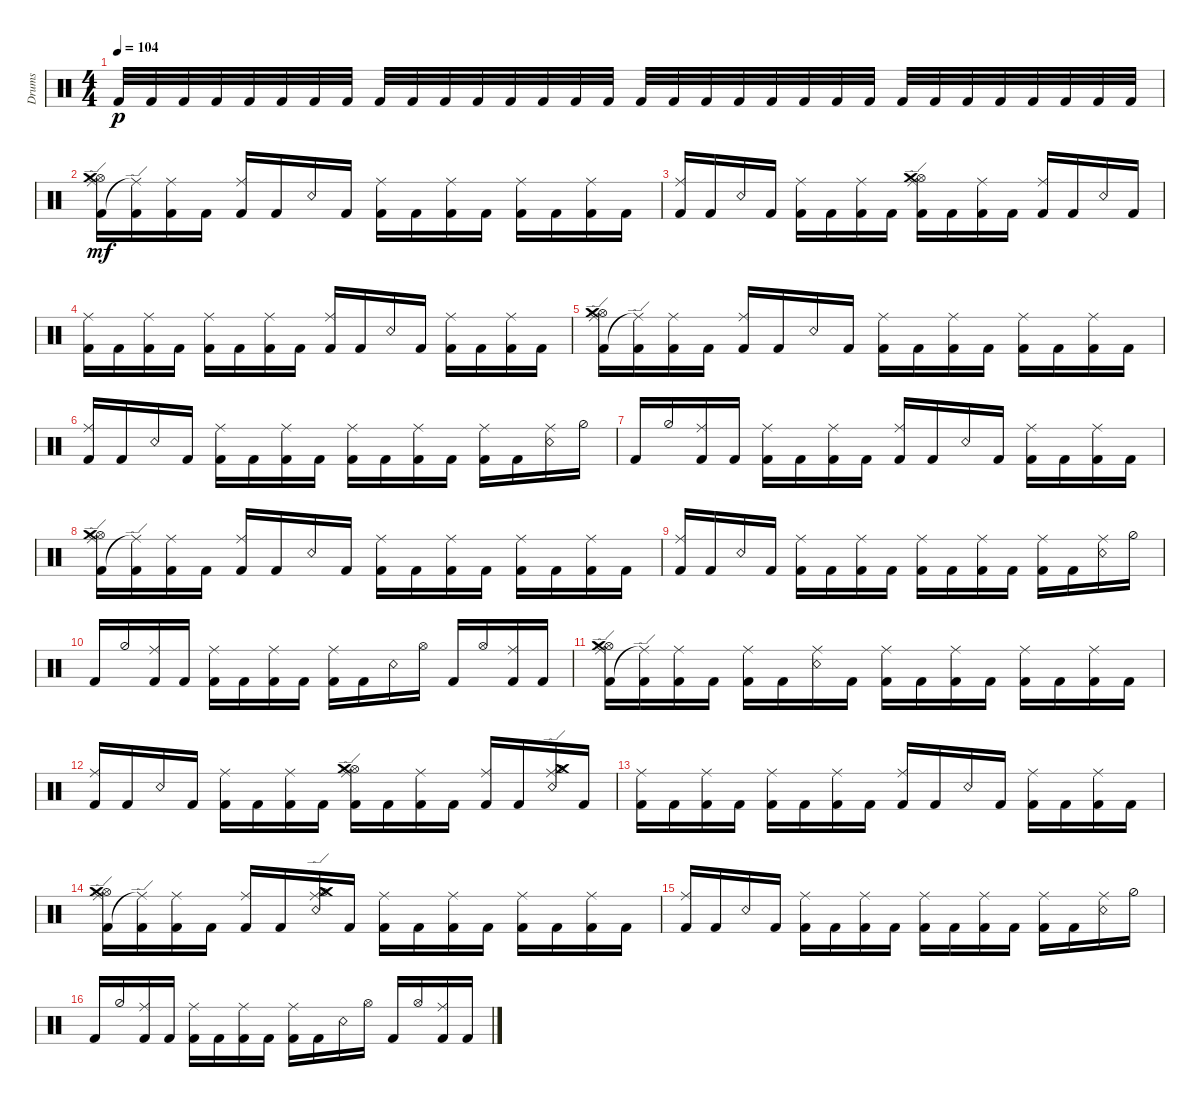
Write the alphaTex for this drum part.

\defaultSystemsLayout 4
\bracketExtendMode groupsimilarinstruments
\otherSystemsTrackNameOrientation horizontal
\track ("Martin Lopez" "Drums") {instrument percussion}
\staff {score}
\articulation defaults
\ts (4 4)
\tempo 104
\clef neutral
\ks c "Kick (hit) 2".32{dy p beam Up} "Kick (hit) 2".32{beam Up} "Kick (hit) 2".32{beam Up} "Kick (hit) 2".32{beam Up} "Kick (hit) 2".32{beam Up} "Kick (hit) 2".32{beam Up} "Kick (hit) 2".32{beam Up} "Kick (hit) 2".32{beam Up} "Kick (hit) 2".32{beam Up} "Kick (hit) 2".32{beam Up} "Kick (hit) 2".32{beam Up} "Kick (hit) 2".32{beam Up} "Kick (hit) 2".32{beam Up} "Kick (hit) 2".32{beam Up} "Kick (hit) 2".32{beam Up} "Kick (hit) 2".32{beam Up} "Kick (hit) 2".32{beam Up} "Kick (hit) 2".32{beam Up} "Kick (hit) 2".32{beam Up} "Kick (hit) 2".32{beam Up} "Kick (hit) 2".32{beam Up} "Kick (hit) 2".32{beam Up} "Kick (hit) 2".32{beam Up} "Kick (hit) 2".32{beam Up} "Kick (hit) 2".32{beam Up} "Kick (hit) 2".32{beam Up} "Kick (hit) 2".32{beam Up} "Kick (hit) 2".32{beam Up} "Kick (hit) 2".32{beam Up} "Kick (hit) 2".32{beam Up} "Kick (hit) 2".32{beam Up} "Kick (hit) 2".32{beam Up}
|
("Ride (edge)" "Kick (hit) 2" "Hi-Hat (open)" "Crash medium (hit)").16{dy mf beam Down} ("Kick (hit) 2" "Ride (edge)"{t}).16{beam Down} ("Ride (middle)" "Kick (hit) 2").16{beam Down} "Kick (hit) 2".16{beam Down} ("Kick (hit) 2" "Ride (middle)").16{beam Up} "Kick (hit) 2".16{beam Up} "Snare (rim shot)".16{beam Up} "Kick (hit) 2".16{beam Up} ("Kick (hit) 2" "Ride (middle)").16{beam Down} "Kick (hit) 2".16{beam Down} ("Kick (hit) 2" "Ride (middle)").16{beam Down} "Kick (hit) 2".16{beam Down} ("Kick (hit) 2" "Ride (middle)").16{beam Down} "Kick (hit) 2".16{beam Down} ("Kick (hit) 2" "Ride (middle)").16{beam Down} "Kick (hit) 2".16{beam Down} |
("Kick (hit) 2" "Ride (middle)").16{beam Up} "Kick (hit) 2".16{beam Up} "Snare (rim shot)".16{beam Up} "Kick (hit) 2".16{beam Up} ("Kick (hit) 2" "Ride (middle)").16{beam Down} "Kick (hit) 2".16{beam Down} ("Kick (hit) 2" "Ride (middle)").16{beam Down} "Kick (hit) 2".16{beam Down} ("Kick (hit) 2" "Ride (edge)" "Hi-Hat (open)" "Crash medium (hit)").16{beam Down} "Kick (hit) 2".16{beam Down} ("Kick (hit) 2" "Ride (middle)").16{beam Down} "Kick (hit) 2".16{beam Down} ("Kick (hit) 2" "Ride (middle)").16{beam Up} "Kick (hit) 2".16{beam Up} "Snare (rim shot)".16{beam Up} "Kick (hit) 2".16{beam Up} |
("Kick (hit) 2" "Ride (middle)").16{beam Down} "Kick (hit) 2".16{beam Down} ("Kick (hit) 2" "Ride (middle)").16{beam Down} "Kick (hit) 2".16{beam Down} ("Kick (hit) 2" "Ride (middle)").16{beam Down} "Kick (hit) 2".16{beam Down} ("Kick (hit) 2" "Ride (middle)").16{beam Down} "Kick (hit) 2".16{beam Down} ("Kick (hit) 2" "Ride (middle)").16{beam Up} "Kick (hit) 2".16{beam Up} "Snare (rim shot)".16{beam Up} "Kick (hit) 2".16{beam Up} ("Kick (hit) 2" "Ride (middle)").16{beam Down} "Kick (hit) 2".16{beam Down} ("Kick (hit) 2" "Ride (middle)").16{beam Down} "Kick (hit) 2".16{beam Down} |
("Ride (edge)" "Kick (hit) 2" "Hi-Hat (open)" "Crash medium (hit)").16{beam Down} ("Kick (hit) 2" "Ride (edge)"{t}).16{beam Down} ("Ride (middle)" "Kick (hit) 2").16{beam Down} "Kick (hit) 2".16{beam Down} ("Kick (hit) 2" "Ride (middle)").16{beam Up} "Kick (hit) 2".16{beam Up} "Snare (rim shot)".16{beam Up} "Kick (hit) 2".16{beam Up} ("Kick (hit) 2" "Ride (middle)").16{beam Down} "Kick (hit) 2".16{beam Down} ("Kick (hit) 2" "Ride (middle)").16{beam Down} "Kick (hit) 2".16{beam Down} ("Kick (hit) 2" "Ride (middle)").16{beam Down} "Kick (hit) 2".16{beam Down} ("Kick (hit) 2" "Ride (middle)").16{beam Down} "Kick (hit) 2".16{beam Down} |
("Kick (hit) 2" "Ride (middle)").16{beam Up} "Kick (hit) 2".16{beam Up} "Snare (rim shot)".16{beam Up} "Kick (hit) 2".16{beam Up} ("Kick (hit) 2" "Ride (middle)").16{beam Down} "Kick (hit) 2".16{beam Down} ("Kick (hit) 2" "Ride (middle)").16{beam Down} "Kick (hit) 2".16{beam Down} ("Kick (hit) 2" "Ride (middle)").16{beam Down} "Kick (hit) 2".16{beam Down} ("Kick (hit) 2" "Ride (middle)").16{beam Down} "Kick (hit) 2".16{beam Down} ("Kick (hit) 2" "Ride (middle)").16{beam Down} "Kick (hit) 2".16{beam Down} ("Snare (rim shot)" "Ride (middle)").16{beam Down} "Hi-Hat (half)".16{beam Down} |
"Kick (hit) 2".16{beam Up} "Hi-Hat (half)".16{beam Up} ("Kick (hit) 2" "Ride (middle)").16{beam Up} "Kick (hit) 2".16{beam Up} ("Kick (hit) 2" "Ride (middle)").16{beam Down} "Kick (hit) 2".16{beam Down} ("Kick (hit) 2" "Ride (middle)").16{beam Down} "Kick (hit) 2".16{beam Down} ("Kick (hit) 2" "Ride (middle)").16{beam Up} "Kick (hit) 2".16{beam Up} "Snare (rim shot)".16{beam Up} "Kick (hit) 2".16{beam Up} ("Kick (hit) 2" "Ride (middle)").16{beam Down} "Kick (hit) 2".16{beam Down} ("Kick (hit) 2" "Ride (middle)").16{beam Down} "Kick (hit) 2".16{beam Down} |
("Ride (edge)" "Kick (hit) 2" "Hi-Hat (open)" "Crash medium (hit)").16{beam Down} ("Kick (hit) 2" "Ride (edge)"{t}).16{beam Down} ("Ride (middle)" "Kick (hit) 2").16{beam Down} "Kick (hit) 2".16{beam Down} ("Kick (hit) 2" "Ride (middle)").16{beam Up} "Kick (hit) 2".16{beam Up} "Snare (rim shot)".16{beam Up} "Kick (hit) 2".16{beam Up} ("Kick (hit) 2" "Ride (middle)").16{beam Down} "Kick (hit) 2".16{beam Down} ("Kick (hit) 2" "Ride (middle)").16{beam Down} "Kick (hit) 2".16{beam Down} ("Kick (hit) 2" "Ride (middle)").16{beam Down} "Kick (hit) 2".16{beam Down} ("Kick (hit) 2" "Ride (middle)").16{beam Down} "Kick (hit) 2".16{beam Down} |
("Kick (hit) 2" "Ride (middle)").16{beam Up} "Kick (hit) 2".16{beam Up} "Snare (rim shot)".16{beam Up} "Kick (hit) 2".16{beam Up} ("Kick (hit) 2" "Ride (middle)").16{beam Down} "Kick (hit) 2".16{beam Down} ("Kick (hit) 2" "Ride (middle)").16{beam Down} "Kick (hit) 2".16{beam Down} ("Kick (hit) 2" "Ride (middle)").16{beam Down} "Kick (hit) 2".16{beam Down} ("Kick (hit) 2" "Ride (middle)").16{beam Down} "Kick (hit) 2".16{beam Down} ("Kick (hit) 2" "Ride (middle)").16{beam Down} "Kick (hit) 2".16{beam Down} ("Snare (rim shot)" "Ride (middle)").16{beam Down} "Hi-Hat (half)".16{beam Down} |
"Kick (hit) 2".16{beam Up} "Hi-Hat (half)".16{beam Up} ("Kick (hit) 2" "Ride (middle)").16{beam Up} "Kick (hit) 2".16{beam Up} ("Kick (hit) 2" "Ride (middle)").16{beam Down} "Kick (hit) 2".16{beam Down} ("Kick (hit) 2" "Ride (middle)").16{beam Down} "Kick (hit) 2".16{beam Down} ("Kick (hit) 2" "Ride (middle)").16{beam Down} "Kick (hit) 2".16{beam Down} "Snare (rim shot)".16{beam Down} "Hi-Hat (open)".16{beam Down} "Kick (hit) 2".16{beam Up} "Hi-Hat (open)".16{beam Up} ("Kick (hit) 2" "Ride (middle)").16{beam Up} "Kick (hit) 2".16{beam Up} |
("Ride (edge)" "Kick (hit) 2" "Hi-Hat (open)" "Crash medium (hit)").16{beam Down} ("Kick (hit) 2" "Ride (edge)"{t}).16{beam Down} ("Ride (middle)" "Kick (hit) 2").16{beam Down} "Kick (hit) 2".16{beam Down} ("Kick (hit) 2" "Ride (middle)").16{beam Down} "Kick (hit) 2".16{beam Down} ("Snare (rim shot)" "Ride (middle)").16{beam Down} "Kick (hit) 2".16{beam Down} ("Kick (hit) 2" "Ride (middle)").16{beam Down} "Kick (hit) 2".16{beam Down} ("Kick (hit) 2" "Ride (middle)").16{beam Down} "Kick (hit) 2".16{beam Down} ("Kick (hit) 2" "Ride (middle)").16{beam Down} "Kick (hit) 2".16{beam Down} ("Kick (hit) 2" "Ride (middle)").16{beam Down} "Kick (hit) 2".16{beam Down} |
("Kick (hit) 2" "Ride (middle)").16{beam Up} "Kick (hit) 2".16{beam Up} "Snare (rim shot)".16{beam Up} "Kick (hit) 2".16{beam Up} ("Kick (hit) 2" "Ride (middle)").16{beam Down} "Kick (hit) 2".16{beam Down} ("Kick (hit) 2" "Ride (middle)").16{beam Down} "Kick (hit) 2".16{beam Down} ("Kick (hit) 2" "Ride (edge)" "Hi-Hat (open)" "Crash medium (hit)").16{beam Down} "Kick (hit) 2".16{beam Down} ("Kick (hit) 2" "Ride (middle)").16{beam Down} "Kick (hit) 2".16{beam Down} ("Kick (hit) 2" "Ride (middle)").16{beam Up} "Kick (hit) 2".16{beam Up} ("Snare (rim shot)" "Ride (edge)" "Hi-Hat (half)" "Crash medium (hit)").16{beam Up} "Kick (hit) 2".16{beam Up} |
("Kick (hit) 2" "Ride (middle)").16{beam Down} "Kick (hit) 2".16{beam Down} ("Kick (hit) 2" "Ride (middle)").16{beam Down} "Kick (hit) 2".16{beam Down} ("Kick (hit) 2" "Ride (middle)").16{beam Down} "Kick (hit) 2".16{beam Down} ("Kick (hit) 2" "Ride (middle)").16{beam Down} "Kick (hit) 2".16{beam Down} ("Kick (hit) 2" "Ride (middle)").16{beam Up} "Kick (hit) 2".16{beam Up} "Snare (rim shot)".16{beam Up} "Kick (hit) 2".16{beam Up} ("Kick (hit) 2" "Ride (middle)").16{beam Down} "Kick (hit) 2".16{beam Down} ("Kick (hit) 2" "Ride (middle)").16{beam Down} "Kick (hit) 2".16{beam Down} |
("Ride (edge)" "Kick (hit) 2" "Hi-Hat (open)" "Crash medium (hit)").16{beam Down} ("Kick (hit) 2" "Ride (edge)"{t}).16{beam Down} ("Ride (middle)" "Kick (hit) 2").16{beam Down} "Kick (hit) 2".16{beam Down} ("Kick (hit) 2" "Ride (middle)").16{beam Up} "Kick (hit) 2".16{beam Up} ("Snare (rim shot)" "Ride (edge)" "Hi-Hat (open)" "Crash medium (hit)").16{beam Up} "Kick (hit) 2".16{beam Up} ("Kick (hit) 2" "Ride (middle)").16{beam Down} "Kick (hit) 2".16{beam Down} ("Kick (hit) 2" "Ride (middle)").16{beam Down} "Kick (hit) 2".16{beam Down} ("Kick (hit) 2" "Ride (middle)").16{beam Down} "Kick (hit) 2".16{beam Down} ("Kick (hit) 2" "Ride (middle)").16{beam Down} "Kick (hit) 2".16{beam Down} |
("Kick (hit) 2" "Ride (middle)").16{beam Up} "Kick (hit) 2".16{beam Up} "Snare (rim shot)".16{beam Up} "Kick (hit) 2".16{beam Up} ("Kick (hit) 2" "Ride (middle)").16{beam Down} "Kick (hit) 2".16{beam Down} ("Kick (hit) 2" "Ride (middle)").16{beam Down} "Kick (hit) 2".16{beam Down} ("Kick (hit) 2" "Ride (middle)").16{beam Down} "Kick (hit) 2".16{beam Down} ("Kick (hit) 2" "Ride (middle)").16{beam Down} "Kick (hit) 2".16{beam Down} ("Kick (hit) 2" "Ride (middle)").16{beam Down} "Kick (hit) 2".16{beam Down} ("Snare (rim shot)" "Ride (middle)").16{beam Down} "Hi-Hat (half)".16{beam Down} |
"Kick (hit) 2".16{beam Up} "Hi-Hat (half)".16{beam Up} ("Kick (hit) 2" "Ride (middle)").16{beam Up} "Kick (hit) 2".16{beam Up} ("Kick (hit) 2" "Ride (middle)").16{beam Down} "Kick (hit) 2".16{beam Down} ("Kick (hit) 2" "Ride (middle)").16{beam Down} "Kick (hit) 2".16{beam Down} ("Kick (hit) 2" "Ride (middle)").16{beam Down} "Kick (hit) 2".16{beam Down} "Snare (rim shot)".16{beam Down} "Hi-Hat (open)".16{beam Down} "Kick (hit) 2".16{beam Up} "Hi-Hat (open)".16{beam Up} ("Kick (hit) 2" "Ride (middle)").16{beam Up} "Kick (hit) 2".16{beam Up}
